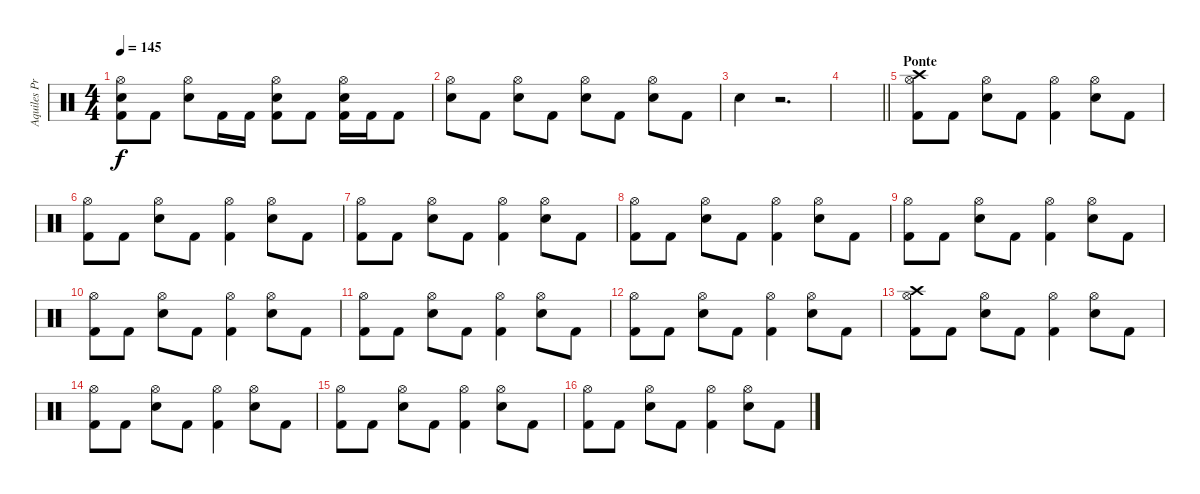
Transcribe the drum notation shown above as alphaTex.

\track ("Aquiles Priester" "Aquiles Pr") {instrument percussion}
\staff {score}
\articulation defaults
\ts (4 4)
\tempo 145
\clef neutral
\ks c
("Hi-Hat (open)" "Electric Snare (hit)" "Kick (hit) 2").8{dy f} "Kick (hit) 2".8 ("Hi-Hat (open)" "Electric Snare (hit)").8 "Kick (hit) 2".16 "Kick (hit) 2".16 ("Hi-Hat (open)" "Electric Snare (hit)" "Kick (hit) 2").8 "Kick (hit) 2".8 ("Hi-Hat (open)" "Electric Snare (hit)" "Kick (hit) 2").16 "Kick (hit) 2".16 "Kick (hit) 2".8 |
("Hi-Hat (open)" "Electric Snare (hit)").8 "Kick (hit) 2".8 ("Hi-Hat (open)" "Electric Snare (hit)").8 "Kick (hit) 2".8 ("Hi-Hat (open)" "Electric Snare (hit)").8 "Kick (hit) 2".8 ("Hi-Hat (open)" "Electric Snare (hit)").8 "Kick (hit) 2".8 |
"Electric Snare (hit)".4 r.2{d} |
\barLineRight lightlight
|
\section ("" "Ponte")
("Crash high (hit)" "Hi-Hat (open)" "Kick (hit) 2").8 "Kick (hit) 2".8 ("Hi-Hat (open)" "Electric Snare (hit)").8 "Kick (hit) 2".8 ("Hi-Hat (open)" "Kick (hit) 2").4 ("Hi-Hat (open)" "Electric Snare (hit)").8 "Kick (hit) 2".8 |
("Hi-Hat (open)" "Kick (hit) 2").8 "Kick (hit) 2".8 ("Hi-Hat (open)" "Electric Snare (hit)").8 "Kick (hit) 2".8 ("Hi-Hat (open)" "Kick (hit) 2").4 ("Hi-Hat (open)" "Electric Snare (hit)").8 "Kick (hit) 2".8 |
("Hi-Hat (open)" "Kick (hit) 2").8 "Kick (hit) 2".8 ("Hi-Hat (open)" "Electric Snare (hit)").8 "Kick (hit) 2".8 ("Hi-Hat (open)" "Kick (hit) 2").4 ("Hi-Hat (open)" "Electric Snare (hit)").8 "Kick (hit) 2".8 |
("Hi-Hat (open)" "Kick (hit) 2").8 "Kick (hit) 2".8 ("Hi-Hat (open)" "Electric Snare (hit)").8 "Kick (hit) 2".8 ("Hi-Hat (open)" "Kick (hit) 2").4 ("Hi-Hat (open)" "Electric Snare (hit)").8 "Kick (hit) 2".8 |
("Hi-Hat (open)" "Kick (hit) 2").8 "Kick (hit) 2".8 ("Hi-Hat (open)" "Electric Snare (hit)").8 "Kick (hit) 2".8 ("Hi-Hat (open)" "Kick (hit) 2").4 ("Hi-Hat (open)" "Electric Snare (hit)").8 "Kick (hit) 2".8 |
("Hi-Hat (open)" "Kick (hit) 2").8 "Kick (hit) 2".8 ("Hi-Hat (open)" "Electric Snare (hit)").8 "Kick (hit) 2".8 ("Hi-Hat (open)" "Kick (hit) 2").4 ("Hi-Hat (open)" "Electric Snare (hit)").8 "Kick (hit) 2".8 |
("Hi-Hat (open)" "Kick (hit) 2").8 "Kick (hit) 2".8 ("Hi-Hat (open)" "Electric Snare (hit)").8 "Kick (hit) 2".8 ("Hi-Hat (open)" "Kick (hit) 2").4 ("Hi-Hat (open)" "Electric Snare (hit)").8 "Kick (hit) 2".8 |
("Hi-Hat (open)" "Kick (hit) 2").8 "Kick (hit) 2".8 ("Hi-Hat (open)" "Electric Snare (hit)").8 "Kick (hit) 2".8 ("Hi-Hat (open)" "Kick (hit) 2").4 ("Hi-Hat (open)" "Electric Snare (hit)").8 "Kick (hit) 2".8 |
("Crash high (hit)" "Hi-Hat (open)" "Kick (hit) 2").8 "Kick (hit) 2".8 ("Hi-Hat (open)" "Electric Snare (hit)").8 "Kick (hit) 2".8 ("Hi-Hat (open)" "Kick (hit) 2").4 ("Hi-Hat (open)" "Electric Snare (hit)").8 "Kick (hit) 2".8 |
("Hi-Hat (open)" "Kick (hit) 2").8 "Kick (hit) 2".8 ("Hi-Hat (open)" "Electric Snare (hit)").8 "Kick (hit) 2".8 ("Hi-Hat (open)" "Kick (hit) 2").4 ("Hi-Hat (open)" "Electric Snare (hit)").8 "Kick (hit) 2".8 |
("Hi-Hat (open)" "Kick (hit) 2").8 "Kick (hit) 2".8 ("Hi-Hat (open)" "Electric Snare (hit)").8 "Kick (hit) 2".8 ("Hi-Hat (open)" "Kick (hit) 2").4 ("Hi-Hat (open)" "Electric Snare (hit)").8 "Kick (hit) 2".8 |
("Hi-Hat (open)" "Kick (hit) 2").8 "Kick (hit) 2".8 ("Hi-Hat (open)" "Electric Snare (hit)").8 "Kick (hit) 2".8 ("Hi-Hat (open)" "Kick (hit) 2").4 ("Hi-Hat (open)" "Electric Snare (hit)").8 "Kick (hit) 2".8
